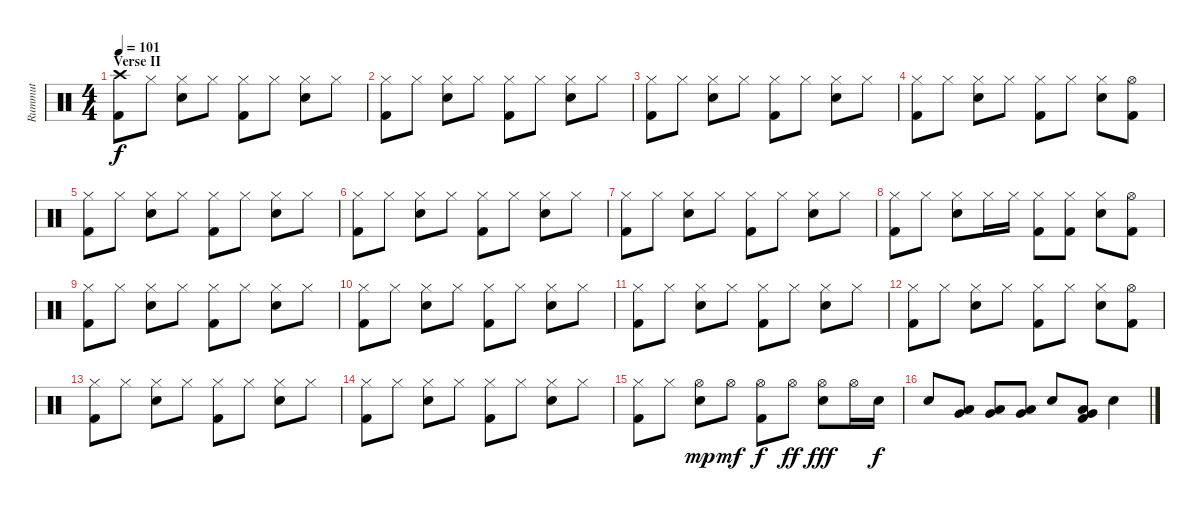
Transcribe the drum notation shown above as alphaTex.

\track ("Rummut" "Rummut") {instrument percussion}
\staff {score}
\articulation defaults
\ts (4 4)
\section ("" "Verse II")
\tempo 101
\clef neutral
\ks c
("Crash high (hit)" "Kick (hit) 2").8{dy f} "Hi-Hat (closed)".8 ("Hi-Hat (closed)" "Electric Snare (hit)").8 "Hi-Hat (closed)".8 ("Hi-Hat (closed)" "Kick (hit) 2").8 "Hi-Hat (closed)".8 ("Hi-Hat (closed)" "Electric Snare (hit)").8 "Hi-Hat (closed)".8 |
("Hi-Hat (closed)" "Kick (hit) 2").8 "Hi-Hat (closed)".8 ("Hi-Hat (closed)" "Electric Snare (hit)").8 "Hi-Hat (closed)".8 ("Hi-Hat (closed)" "Kick (hit) 2").8 "Hi-Hat (closed)".8 ("Hi-Hat (closed)" "Electric Snare (hit)").8 "Hi-Hat (closed)".8 |
("Hi-Hat (closed)" "Kick (hit) 2").8 "Hi-Hat (closed)".8 ("Hi-Hat (closed)" "Electric Snare (hit)").8 "Hi-Hat (closed)".8 ("Hi-Hat (closed)" "Kick (hit) 2").8 "Hi-Hat (closed)".8 ("Hi-Hat (closed)" "Electric Snare (hit)").8 "Hi-Hat (closed)".8 |
("Hi-Hat (closed)" "Kick (hit) 2").8 "Hi-Hat (closed)".8 ("Hi-Hat (closed)" "Electric Snare (hit)").8 "Hi-Hat (closed)".8 ("Hi-Hat (closed)" "Kick (hit) 2").8 "Hi-Hat (closed)".8 ("Hi-Hat (closed)" "Electric Snare (hit)").8 ("Hi-Hat (open)" "Kick (hit) 2").8 |
("Hi-Hat (closed)" "Kick (hit) 2").8 "Hi-Hat (closed)".8 ("Hi-Hat (closed)" "Electric Snare (hit)").8 "Hi-Hat (closed)".8 ("Hi-Hat (closed)" "Kick (hit) 2").8 "Hi-Hat (closed)".8 ("Hi-Hat (closed)" "Electric Snare (hit)").8 "Hi-Hat (closed)".8 |
("Hi-Hat (closed)" "Kick (hit) 2").8 "Hi-Hat (closed)".8 ("Hi-Hat (closed)" "Electric Snare (hit)").8 "Hi-Hat (closed)".8 ("Hi-Hat (closed)" "Kick (hit) 2").8 "Hi-Hat (closed)".8 ("Hi-Hat (closed)" "Electric Snare (hit)").8 "Hi-Hat (closed)".8 |
("Hi-Hat (closed)" "Kick (hit) 2").8 "Hi-Hat (closed)".8 ("Hi-Hat (closed)" "Electric Snare (hit)").8 "Hi-Hat (closed)".8 ("Hi-Hat (closed)" "Kick (hit) 2").8 "Hi-Hat (closed)".8 ("Hi-Hat (closed)" "Electric Snare (hit)").8 "Hi-Hat (closed)".8 |
("Hi-Hat (closed)" "Kick (hit) 2").8 "Hi-Hat (closed)".8 ("Hi-Hat (closed)" "Electric Snare (hit)").8 "Hi-Hat (closed)".16 "Hi-Hat (closed)".16 ("Hi-Hat (closed)" "Kick (hit) 2").8 ("Hi-Hat (closed)" "Kick (hit) 2").8 ("Hi-Hat (closed)" "Electric Snare (hit)").8 ("Hi-Hat (open)" "Kick (hit) 2").8 |
("Hi-Hat (closed)" "Kick (hit) 2").8 "Hi-Hat (closed)".8 ("Hi-Hat (closed)" "Electric Snare (hit)").8 "Hi-Hat (closed)".8 ("Hi-Hat (closed)" "Kick (hit) 2").8 "Hi-Hat (closed)".8 ("Hi-Hat (closed)" "Electric Snare (hit)").8 "Hi-Hat (closed)".8 |
("Hi-Hat (closed)" "Kick (hit) 2").8 "Hi-Hat (closed)".8 ("Hi-Hat (closed)" "Electric Snare (hit)").8 "Hi-Hat (closed)".8 ("Hi-Hat (closed)" "Kick (hit) 2").8 "Hi-Hat (closed)".8 ("Hi-Hat (closed)" "Electric Snare (hit)").8 "Hi-Hat (closed)".8 |
("Hi-Hat (closed)" "Kick (hit) 2").8 "Hi-Hat (closed)".8 ("Hi-Hat (closed)" "Electric Snare (hit)").8 "Hi-Hat (closed)".8 ("Hi-Hat (closed)" "Kick (hit) 2").8 "Hi-Hat (closed)".8 ("Hi-Hat (closed)" "Electric Snare (hit)").8 "Hi-Hat (closed)".8 |
("Hi-Hat (closed)" "Kick (hit) 2").8 "Hi-Hat (closed)".8 ("Hi-Hat (closed)" "Electric Snare (hit)").8 "Hi-Hat (closed)".8 ("Hi-Hat (closed)" "Kick (hit) 2").8 "Hi-Hat (closed)".8 ("Hi-Hat (closed)" "Electric Snare (hit)").8 ("Hi-Hat (open)" "Kick (hit) 2").8 |
("Hi-Hat (closed)" "Kick (hit) 2").8 "Hi-Hat (closed)".8 ("Hi-Hat (closed)" "Electric Snare (hit)").8 "Hi-Hat (closed)".8 ("Hi-Hat (closed)" "Kick (hit) 2").8 "Hi-Hat (closed)".8 ("Hi-Hat (closed)" "Electric Snare (hit)").8 "Hi-Hat (closed)".8 |
("Hi-Hat (closed)" "Kick (hit) 2").8 "Hi-Hat (closed)".8 ("Hi-Hat (closed)" "Electric Snare (hit)").8 "Hi-Hat (closed)".8 ("Hi-Hat (closed)" "Kick (hit) 2").8 "Hi-Hat (closed)".8 ("Hi-Hat (closed)" "Electric Snare (hit)").8 "Hi-Hat (closed)".8 |
("Hi-Hat (closed)" "Kick (hit) 2").8 "Hi-Hat (closed)".8 ("Hi-Hat (open)" "Electric Snare (hit)").8{dy mp} "Hi-Hat (open)".8{dy mf} ("Hi-Hat (open)" "Kick (hit) 2").8{dy f} "Hi-Hat (open)".8{dy ff} ("Hi-Hat (open)" "Electric Snare (hit)").8{dy fff} "Hi-Hat (open)".16 "Electric Snare (hit)".16{dy f} |
"Electric Snare (hit)".8 ("Very Low Tom (hit)" "Low Floor Tom (hit)").8 ("Very Low Tom (hit)" "Low Floor Tom (hit)").8 ("Very Low Tom (hit)" "Low Floor Tom (hit)").8 "Electric Snare (hit)".8 ("Very Low Tom (hit)" "Low Floor Tom (hit)" "Kick (hit) 2").8 "Electric Snare (hit)".4
